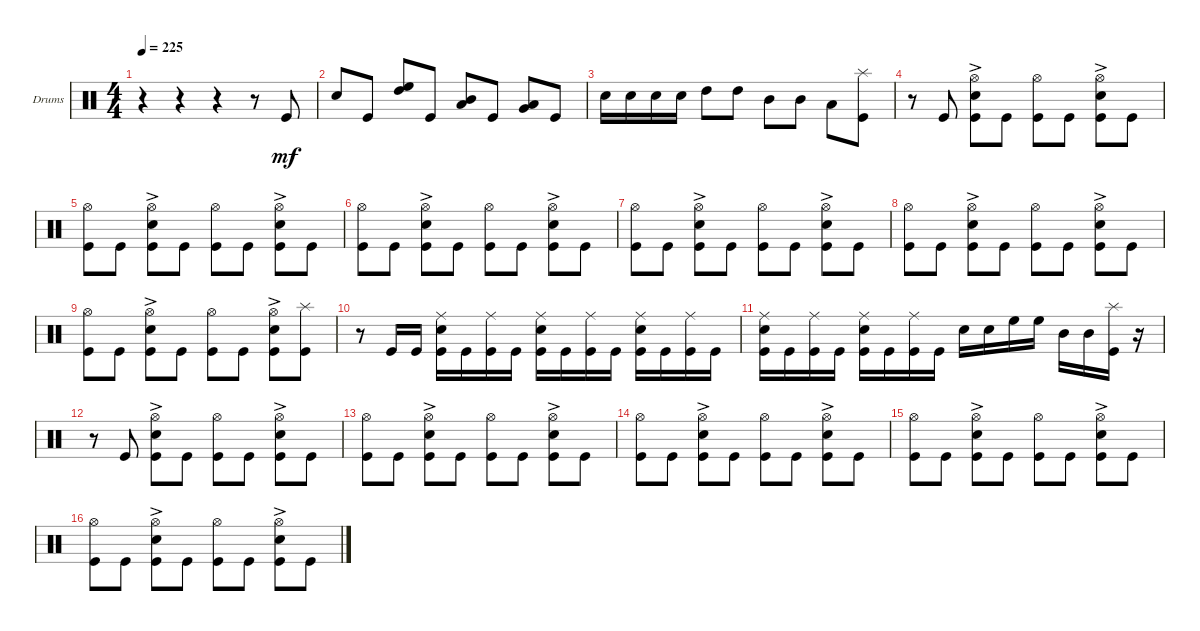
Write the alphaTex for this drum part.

\bracketExtendMode groupsimilarinstruments
\firstSystemTrackNameOrientation horizontal
\otherSystemsTrackNameOrientation horizontal
\track ("Drumkit" "Drums") {instrument percussion}
\staff {score}
\articulation defaults
\ts (4 4)
\tempo 225
\clef neutral
\ks c
r.4{dy mf} r.4 r.4 r.8 "Kick (hit)".8 |
"Snare (hit) 2".8 "Kick (hit)".8 ("High Tom (hit)" "High Floor Tom (hit)").8 "Kick (hit)".8 ("Mid Tom (hit)" "Low Tom (hit)").8 "Kick (hit)".8 ("Very Low Tom (hit)" "Low Tom (hit)").8 "Kick (hit)".8 |
"Snare (hit) 2".16 "Snare (hit) 2".16 "Snare (hit) 2".16 "Snare (hit) 2".16 "High Tom (hit)".8 "High Tom (hit)".8 "Mid Tom (hit)".8 "Mid Tom (hit)".8 "Low Tom (hit)".8 ("Kick (hit)" "Splash (hit)").8 |
r.8 "Kick (hit)".8 ("Snare (hit) 2"{ac} "Kick (hit)" "Hi-Hat (open)").8 "Kick (hit)".8 ("Kick (hit)" "Hi-Hat (open)").8 "Kick (hit)".8 ("Snare (hit) 2"{ac} "Kick (hit)" "Hi-Hat (open)").8 "Kick (hit)".8 |
("Kick (hit)" "Hi-Hat (open)").8 "Kick (hit)".8 ("Snare (hit) 2"{ac} "Kick (hit)" "Hi-Hat (open)").8 "Kick (hit)".8 ("Kick (hit)" "Hi-Hat (open)").8 "Kick (hit)".8 ("Snare (hit) 2"{ac} "Kick (hit)" "Hi-Hat (open)").8 "Kick (hit)".8 |
("Kick (hit)" "Hi-Hat (open)").8 "Kick (hit)".8 ("Snare (hit) 2"{ac} "Kick (hit)" "Hi-Hat (open)").8 "Kick (hit)".8 ("Kick (hit)" "Hi-Hat (open)").8 "Kick (hit)".8 ("Snare (hit) 2"{ac} "Kick (hit)" "Hi-Hat (open)").8 "Kick (hit)".8 |
("Kick (hit)" "Hi-Hat (open)").8 "Kick (hit)".8 ("Snare (hit) 2"{ac} "Kick (hit)" "Hi-Hat (open)").8 "Kick (hit)".8 ("Kick (hit)" "Hi-Hat (open)").8 "Kick (hit)".8 ("Snare (hit) 2"{ac} "Kick (hit)" "Hi-Hat (open)").8 "Kick (hit)".8 |
("Kick (hit)" "Hi-Hat (open)").8 "Kick (hit)".8 ("Snare (hit) 2"{ac} "Kick (hit)" "Hi-Hat (open)").8 "Kick (hit)".8 ("Kick (hit)" "Hi-Hat (open)").8 "Kick (hit)".8 ("Snare (hit) 2"{ac} "Kick (hit)" "Hi-Hat (open)").8 "Kick (hit)".8 |
("Kick (hit)" "Hi-Hat (open)").8 "Kick (hit)".8 ("Snare (hit) 2"{ac} "Kick (hit)" "Hi-Hat (open)").8 "Kick (hit)".8 ("Kick (hit)" "Hi-Hat (open)").8 "Kick (hit)".8 ("Snare (hit) 2"{ac} "Kick (hit)" "Hi-Hat (open)").8 ("Kick (hit)" "Splash (hit)").8 |
r.8 "Kick (hit)".16 "Kick (hit)".16 ("Snare (hit) 2" "Kick (hit)" "Ride (middle)").16 "Kick (hit)".16 ("Kick (hit)" "Ride (middle)").16 "Kick (hit)".16 ("Snare (hit) 2" "Kick (hit)" "Ride (middle)").16 "Kick (hit)".16 ("Kick (hit)" "Ride (middle)").16 "Kick (hit)".16 ("Snare (hit) 2" "Kick (hit)" "Ride (middle)").16 "Kick (hit)".16 ("Kick (hit)" "Ride (middle)").16 "Kick (hit)".16 |
("Snare (hit) 2" "Kick (hit)" "Ride (middle)").16 "Kick (hit)".16 ("Kick (hit)" "Ride (middle)").16 "Kick (hit)".16 ("Snare (hit) 2" "Kick (hit)" "Ride (middle)").16 "Kick (hit)".16 ("Kick (hit)" "Ride (middle)").16 "Kick (hit)".16 "Snare (hit) 2".16 "Snare (hit) 2".16 "High Floor Tom (hit)".16 "High Floor Tom (hit)".16 "Mid Tom (hit)".16 "Mid Tom (hit)".16 ("Kick (hit)" "Splash (hit)").16 r.16 |
r.8 "Kick (hit)".8 ("Snare (hit) 2"{ac} "Kick (hit)" "Hi-Hat (open)").8 "Kick (hit)".8 ("Kick (hit)" "Hi-Hat (open)").8 "Kick (hit)".8 ("Snare (hit) 2"{ac} "Kick (hit)" "Hi-Hat (open)").8 "Kick (hit)".8 |
("Kick (hit)" "Hi-Hat (open)").8 "Kick (hit)".8 ("Snare (hit) 2"{ac} "Kick (hit)" "Hi-Hat (open)").8 "Kick (hit)".8 ("Kick (hit)" "Hi-Hat (open)").8 "Kick (hit)".8 ("Snare (hit) 2"{ac} "Kick (hit)" "Hi-Hat (open)").8 "Kick (hit)".8 |
("Kick (hit)" "Hi-Hat (open)").8 "Kick (hit)".8 ("Snare (hit) 2"{ac} "Kick (hit)" "Hi-Hat (open)").8 "Kick (hit)".8 ("Kick (hit)" "Hi-Hat (open)").8 "Kick (hit)".8 ("Snare (hit) 2"{ac} "Kick (hit)" "Hi-Hat (open)").8 "Kick (hit)".8 |
("Kick (hit)" "Hi-Hat (open)").8 "Kick (hit)".8 ("Snare (hit) 2"{ac} "Kick (hit)" "Hi-Hat (open)").8 "Kick (hit)".8 ("Kick (hit)" "Hi-Hat (open)").8 "Kick (hit)".8 ("Snare (hit) 2"{ac} "Kick (hit)" "Hi-Hat (open)").8 "Kick (hit)".8 |
("Kick (hit)" "Hi-Hat (open)").8 "Kick (hit)".8 ("Snare (hit) 2"{ac} "Kick (hit)" "Hi-Hat (open)").8 "Kick (hit)".8 ("Kick (hit)" "Hi-Hat (open)").8 "Kick (hit)".8 ("Snare (hit) 2"{ac} "Kick (hit)" "Hi-Hat (open)").8 "Kick (hit)".8
